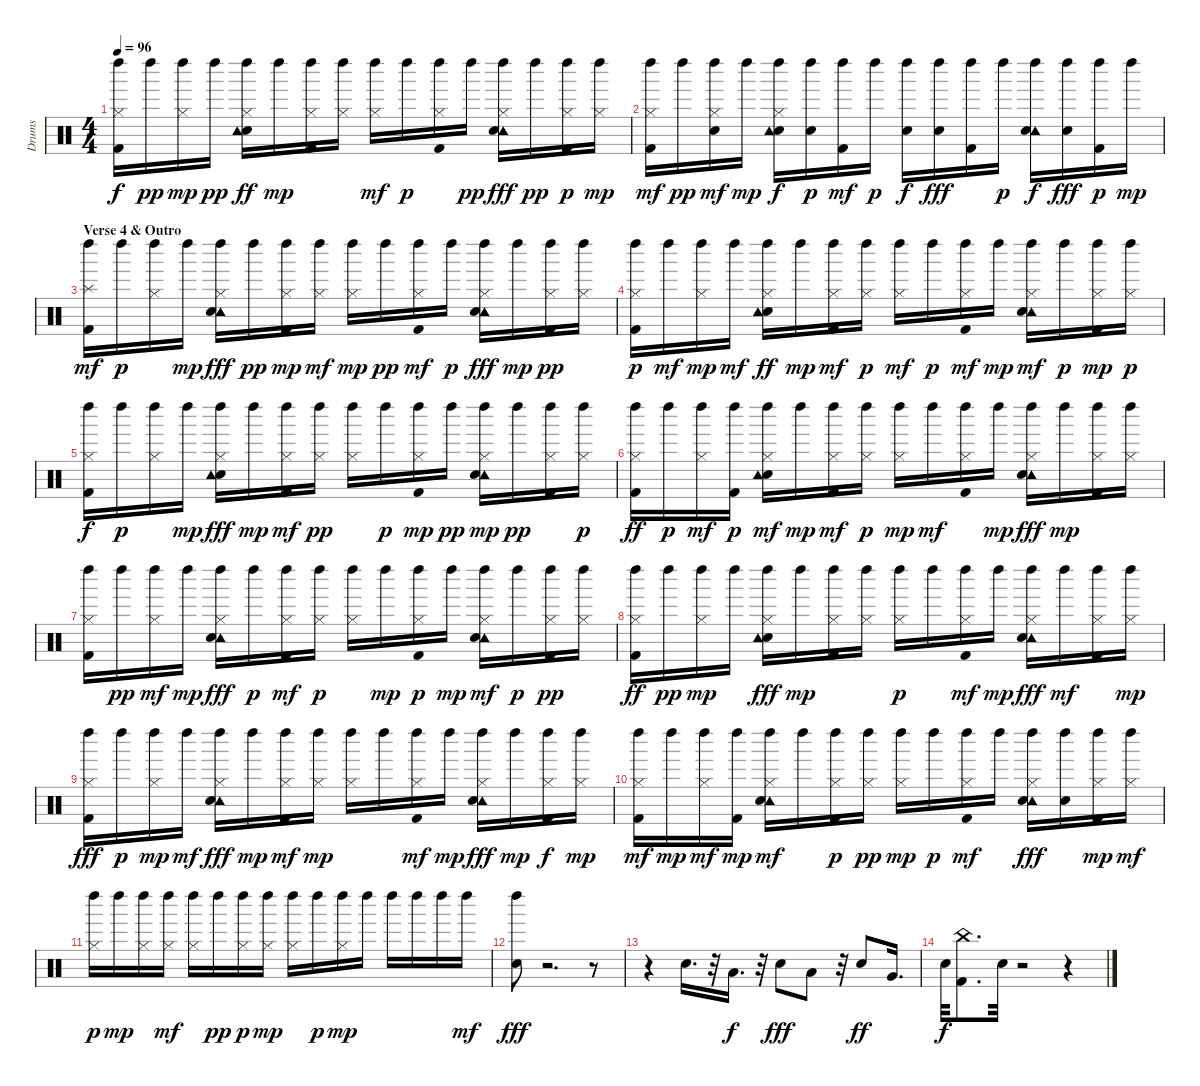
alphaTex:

\track ("Drums" "Drums") {instrument percussion}
\staff {score}
\articulation defaults
\ts (4 4)
\tempo 96
\clef neutral
\ks c
("Hi-Hat (closed)" "Kick (hit) 2" "Left Maraca (hit)").16{dy f} "Left Maraca (hit)".16{dy pp} ("Left Maraca (hit)" "Hi-Hat (closed)").16{dy mp} "Left Maraca (hit)".16{dy pp} ("Hi-Hat (closed)" "Snare (hit) 2" "Tambourine (hit)" "Left Maraca (hit)").16{dy ff} "Left Maraca (hit)".16{dy mp} ("Left Maraca (hit)" "Hi-Hat (closed)" "Kick (hit) 2").16 ("Hi-Hat (closed)" "Left Maraca (hit)").16 ("Left Maraca (hit)" "Hi-Hat (closed)").16{dy mf} "Left Maraca (hit)".16{dy p} ("Hi-Hat (closed)" "Kick (hit) 2" "Left Maraca (hit)").16 "Left Maraca (hit)".16{dy pp} ("Tambourine (hit)" "Snare (hit) 2" "Hi-Hat (closed)" "Left Maraca (hit)").16{dy fff} "Left Maraca (hit)".16{dy pp} ("Hi-Hat (closed)" "Kick (hit) 2" "Left Maraca (hit)").16{dy p} ("Hi-Hat (closed)" "Left Maraca (hit)").16{dy mp} |
("Left Maraca (hit)" "Hi-Hat (closed)" "Kick (hit) 2").16{dy mf} "Left Maraca (hit)".16{dy pp} ("Left Maraca (hit)" "Snare (hit) 2" "Hi-Hat (closed)").16{dy mf} "Left Maraca (hit)".16{dy mp} ("Snare (hit) 2" "Tambourine (hit)" "Hi-Hat (closed)" "Left Maraca (hit)").16{dy f} ("Left Maraca (hit)" "Snare (hit) 2").16{dy p} ("Left Maraca (hit)" "Kick (hit) 2").16{dy mf} "Left Maraca (hit)".16{dy p} ("Snare (hit) 2" "Left Maraca (hit)").16{dy f} ("Snare (hit) 2" "Left Maraca (hit)").16{dy fff} ("Kick (hit) 2" "Left Maraca (hit)").16 "Left Maraca (hit)".16{dy p} ("Left Maraca (hit)" "Tambourine (hit)" "Snare (hit) 2").16{dy f} ("Snare (hit) 2" "Left Maraca (hit)").16{dy fff} ("Left Maraca (hit)" "Kick (hit) 2").16{dy p} "Left Maraca (hit)".16{dy mp} |
\section ("" "Verse 4 & Outro")
("Left Maraca (hit)" "Splash (hit)" "Kick (hit) 2").16{dy mf} "Left Maraca (hit)".16{dy p} ("Left Maraca (hit)" "Hi-Hat (closed)").16 "Left Maraca (hit)".16{dy mp} ("Left Maraca (hit)" "Tambourine (hit)" "Snare (hit) 2" "Hi-Hat (closed)").16{dy fff} "Left Maraca (hit)".16{dy pp} ("Left Maraca (hit)" "Hi-Hat (closed)" "Kick (hit) 2").16{dy mp} ("Left Maraca (hit)" "Hi-Hat (closed)").16{dy mf} ("Left Maraca (hit)" "Hi-Hat (closed)").16{dy mp} "Left Maraca (hit)".16{dy pp} ("Left Maraca (hit)" "Kick (hit) 2" "Hi-Hat (closed)").16{dy mf} "Left Maraca (hit)".16{dy p} ("Tambourine (hit)" "Snare (hit) 2" "Hi-Hat (closed)" "Left Maraca (hit)").16{dy fff} "Left Maraca (hit)".16{dy mp} ("Hi-Hat (closed)" "Kick (hit) 2" "Left Maraca (hit)").16{dy pp} ("Hi-Hat (closed)" "Left Maraca (hit)").16 |
("Hi-Hat (closed)" "Kick (hit) 2" "Left Maraca (hit)").16{dy p} "Left Maraca (hit)".16{dy mf} ("Hi-Hat (closed)" "Left Maraca (hit)").16{dy mp} "Left Maraca (hit)".16{dy mf} ("Hi-Hat (closed)" "Snare (hit) 2" "Tambourine (hit)" "Left Maraca (hit)").16{dy ff} "Left Maraca (hit)".16{dy mp} ("Hi-Hat (closed)" "Kick (hit) 2" "Left Maraca (hit)").16{dy mf} ("Hi-Hat (closed)" "Left Maraca (hit)").16{dy p} ("Hi-Hat (closed)" "Left Maraca (hit)").16{dy mf} "Left Maraca (hit)".16{dy p} ("Kick (hit) 2" "Hi-Hat (closed)" "Left Maraca (hit)").16{dy mf} "Left Maraca (hit)".16{dy mp} ("Left Maraca (hit)" "Tambourine (hit)" "Snare (hit) 2" "Hi-Hat (closed)").16{dy mf} "Left Maraca (hit)".16{dy p} ("Hi-Hat (closed)" "Kick (hit) 2" "Left Maraca (hit)").16{dy mp} ("Left Maraca (hit)" "Hi-Hat (closed)").16{dy p} |
("Kick (hit) 2" "Hi-Hat (closed)" "Left Maraca (hit)").16{dy f} "Left Maraca (hit)".16{dy p} ("Hi-Hat (closed)" "Left Maraca (hit)").16 "Left Maraca (hit)".16{dy mp} ("Snare (hit) 2" "Tambourine (hit)" "Hi-Hat (closed)" "Left Maraca (hit)").16{dy fff} "Left Maraca (hit)".16{dy mp} ("Kick (hit) 2" "Hi-Hat (closed)" "Left Maraca (hit)").16{dy mf} ("Hi-Hat (closed)" "Left Maraca (hit)").16{dy pp} ("Hi-Hat (closed)" "Left Maraca (hit)").16 "Left Maraca (hit)".16{dy p} ("Kick (hit) 2" "Hi-Hat (closed)" "Left Maraca (hit)").16{dy mp} "Left Maraca (hit)".16{dy pp} ("Hi-Hat (closed)" "Tambourine (hit)" "Snare (hit) 2" "Left Maraca (hit)").16{dy mp} "Left Maraca (hit)".16{dy pp} ("Kick (hit) 2" "Hi-Hat (closed)" "Left Maraca (hit)").16 ("Left Maraca (hit)" "Hi-Hat (closed)").16{dy p} |
("Kick (hit) 2" "Hi-Hat (closed)" "Left Maraca (hit)").16{dy ff} "Left Maraca (hit)".16{dy p} ("Left Maraca (hit)" "Hi-Hat (closed)").16{dy mf} ("Left Maraca (hit)" "Kick (hit) 2").16{dy p} ("Left Maraca (hit)" "Snare (hit) 2" "Tambourine (hit)" "Hi-Hat (closed)").16{dy mf} "Left Maraca (hit)".16{dy mp} ("Kick (hit) 2" "Hi-Hat (closed)" "Left Maraca (hit)").16{dy mf} ("Hi-Hat (closed)" "Left Maraca (hit)").16{dy p} ("Hi-Hat (closed)" "Left Maraca (hit)").16{dy mp} "Left Maraca (hit)".16{dy mf} ("Kick (hit) 2" "Hi-Hat (closed)" "Left Maraca (hit)").16 "Left Maraca (hit)".16{dy mp} ("Tambourine (hit)" "Snare (hit) 2" "Hi-Hat (closed)" "Left Maraca (hit)").16{dy fff} "Left Maraca (hit)".16{dy mp} ("Left Maraca (hit)" "Hi-Hat (closed)" "Kick (hit) 2").16 ("Left Maraca (hit)" "Hi-Hat (closed)").16 |
("Hi-Hat (closed)" "Kick (hit) 2" "Left Maraca (hit)").16 "Left Maraca (hit)".16{dy pp} ("Hi-Hat (closed)" "Left Maraca (hit)").16{dy mf} "Left Maraca (hit)".16{dy mp} ("Tambourine (hit)" "Snare (hit) 2" "Hi-Hat (closed)" "Left Maraca (hit)").16{dy fff} "Left Maraca (hit)".16{dy p} ("Kick (hit) 2" "Hi-Hat (closed)" "Left Maraca (hit)").16{dy mf} ("Hi-Hat (closed)" "Left Maraca (hit)").16{dy p} ("Hi-Hat (closed)" "Left Maraca (hit)").16 "Left Maraca (hit)".16{dy mp} ("Left Maraca (hit)" "Kick (hit) 2" "Hi-Hat (closed)").16{dy p} "Left Maraca (hit)".16{dy mp} ("Left Maraca (hit)" "Tambourine (hit)" "Snare (hit) 2" "Hi-Hat (closed)").16{dy mf} "Left Maraca (hit)".16{dy p} ("Kick (hit) 2" "Hi-Hat (closed)" "Left Maraca (hit)").16{dy pp} ("Hi-Hat (closed)" "Left Maraca (hit)").16 |
("Kick (hit) 2" "Hi-Hat (closed)" "Left Maraca (hit)").16{dy ff} "Left Maraca (hit)".16{dy pp} ("Left Maraca (hit)" "Hi-Hat (closed)").16{dy mp} "Left Maraca (hit)".16 ("Snare (hit) 2" "Tambourine (hit)" "Hi-Hat (closed)" "Left Maraca (hit)").16{dy fff} "Left Maraca (hit)".16{dy mp} ("Left Maraca (hit)" "Hi-Hat (closed)" "Kick (hit) 2").16 ("Left Maraca (hit)" "Hi-Hat (closed)").16 ("Hi-Hat (closed)" "Left Maraca (hit)").16{dy p} "Left Maraca (hit)".16 ("Kick (hit) 2" "Hi-Hat (closed)" "Left Maraca (hit)").16{dy mf} "Left Maraca (hit)".16{dy mp} ("Tambourine (hit)" "Snare (hit) 2" "Hi-Hat (closed)" "Left Maraca (hit)").16{dy fff} "Left Maraca (hit)".16{dy mf} ("Hi-Hat (closed)" "Kick (hit) 2" "Left Maraca (hit)").16 ("Left Maraca (hit)" "Hi-Hat (closed)").16{dy mp} |
("Kick (hit) 2" "Hi-Hat (closed)" "Left Maraca (hit)").16{dy fff} "Left Maraca (hit)".16{dy p} ("Hi-Hat (closed)" "Left Maraca (hit)").16{dy mp} "Left Maraca (hit)".16{dy mf} ("Tambourine (hit)" "Snare (hit) 2" "Hi-Hat (closed)" "Left Maraca (hit)").16{dy fff} "Left Maraca (hit)".16{dy mp} ("Left Maraca (hit)" "Hi-Hat (closed)" "Kick (hit) 2").16{dy mf} ("Hi-Hat (closed)" "Left Maraca (hit)").16{dy mp} ("Hi-Hat (closed)" "Left Maraca (hit)").16 "Left Maraca (hit)".16 ("Kick (hit) 2" "Hi-Hat (closed)" "Left Maraca (hit)").16{dy mf} "Left Maraca (hit)".16{dy mp} ("Tambourine (hit)" "Snare (hit) 2" "Hi-Hat (closed)" "Left Maraca (hit)").16{dy fff} "Left Maraca (hit)".16{dy mp} ("Hi-Hat (closed)" "Kick (hit) 2" "Left Maraca (hit)").16{dy f} ("Hi-Hat (closed)" "Left Maraca (hit)").16{dy mp} |
("Kick (hit) 2" "Hi-Hat (closed)" "Left Maraca (hit)").16{dy mf} "Left Maraca (hit)".16{dy mp} ("Left Maraca (hit)" "Hi-Hat (closed)").16{dy mf} ("Kick (hit) 2" "Left Maraca (hit)").16{dy mp} ("Left Maraca (hit)" "Hi-Hat (closed)" "Tambourine (hit)" "Snare (hit) 2").16{dy mf} "Left Maraca (hit)".16 ("Left Maraca (hit)" "Kick (hit) 2" "Hi-Hat (closed)").16{dy p} ("Hi-Hat (closed)" "Left Maraca (hit)").16{dy pp} ("Hi-Hat (closed)" "Left Maraca (hit)").16{dy mp} "Left Maraca (hit)".16{dy p} ("Kick (hit) 2" "Hi-Hat (closed)" "Left Maraca (hit)").16{dy mf} "Left Maraca (hit)".16 ("Hi-Hat (closed)" "Tambourine (hit)" "Snare (hit) 2" "Left Maraca (hit)").16{dy fff} ("Snare (hit) 2" "Left Maraca (hit)").16 ("Kick (hit) 2" "Hi-Hat (closed)" "Left Maraca (hit)").16{dy mp} ("Left Maraca (hit)" "Hi-Hat (closed)").16{dy mf} |
("Left Maraca (hit)" "Hi-Hat (closed)").16{dy p} "Left Maraca (hit)".16{dy mp} ("Left Maraca (hit)" "Hi-Hat (closed)").16 ("Left Maraca (hit)" "Hi-Hat (closed)").16{dy mf} ("Left Maraca (hit)" "Hi-Hat (closed)").16 "Left Maraca (hit)".16{dy pp} ("Left Maraca (hit)" "Hi-Hat (closed)").16{dy p} ("Left Maraca (hit)" "Hi-Hat (closed)").16{dy mp} ("Left Maraca (hit)" "Hi-Hat (closed)").16 "Left Maraca (hit)".16{dy p} ("Left Maraca (hit)" "Hi-Hat (closed)").16{dy mp} "Left Maraca (hit)".16 "Left Maraca (hit)".16 "Left Maraca (hit)".16 "Left Maraca (hit)".16 "Left Maraca (hit)".16{dy mf} |
("Snare (hit) 2" "Left Maraca (hit)").8{dy fff} r.2{d} r.8 |
r.4 "Snare (hit) 2".16{d} r.32 "Low Tom (hit)".16{d dy f} r.32 "Snare (hit) 2".8{dy fff} "Low Tom (hit)".8 r.32 "Snare (hit) 2".8{dy ff} "Very Low Tom (hit)".16{d} |
"Snare (hit)".32{dy f} ("China (hit)" "Kick (hit) 2").8{d} "Snare (hit)".32 r.2 r.4
